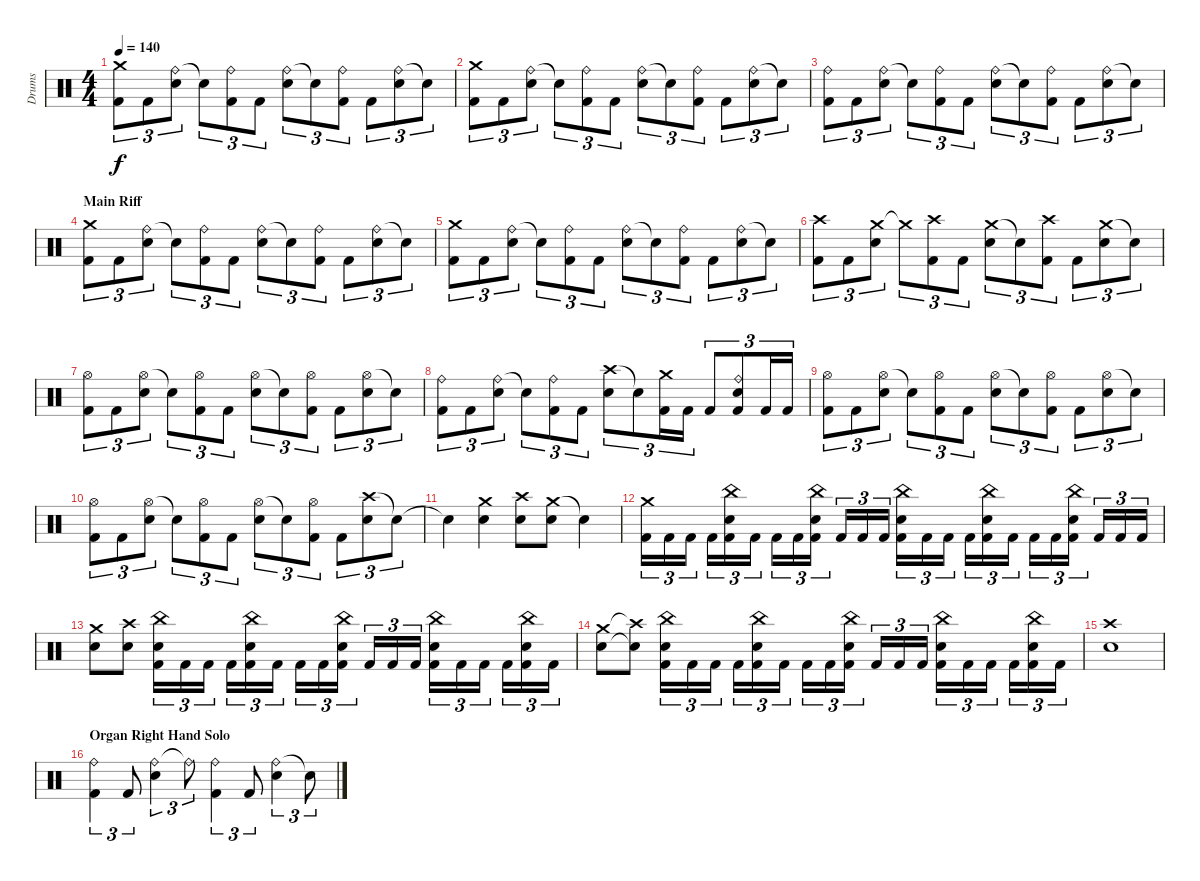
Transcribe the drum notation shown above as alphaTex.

\track ("Drums" "Drums") {instrument percussion}
\staff {score}
\articulation defaults
\ts (4 4)
\tempo 140
\clef neutral
\ks c
("Crash medium (hit)" "Kick (hit) 2").8{tu (3 2) dy f} "Kick (hit) 2".8{tu (3 2)} ("Ride (bell)" "Electric Snare (hit)").8{tu (3 2)} "Snare (hit)"{t}.8{tu (3 2)} ("Ride (bell)" "Kick (hit) 2").8{tu (3 2)} "Kick (hit) 2".8{tu (3 2)} ("Ride (bell)" "Electric Snare (hit)").8{tu (3 2)} "Snare (hit)"{t}.8{tu (3 2)} ("Ride (bell)" "Kick (hit) 2").8{tu (3 2)} "Kick (hit) 2".8{tu (3 2)} ("Ride (bell)" "Electric Snare (hit)").8{tu (3 2)} "Snare (hit)"{t}.8{tu (3 2)} |
("Crash medium (hit)" "Kick (hit) 2").8{tu (3 2)} "Kick (hit) 2".8{tu (3 2)} ("Ride (bell)" "Electric Snare (hit)").8{tu (3 2)} "Snare (hit)"{t}.8{tu (3 2)} ("Ride (bell)" "Kick (hit) 2").8{tu (3 2)} "Kick (hit) 2".8{tu (3 2)} ("Ride (bell)" "Electric Snare (hit)").8{tu (3 2)} "Snare (hit)"{t}.8{tu (3 2)} ("Ride (bell)" "Kick (hit) 2").8{tu (3 2)} "Kick (hit) 2".8{tu (3 2)} ("Ride (bell)" "Electric Snare (hit)").8{tu (3 2)} "Snare (hit)"{t}.8{tu (3 2)} |
("Ride (bell)" "Kick (hit) 2").8{tu (3 2)} "Kick (hit) 2".8{tu (3 2)} ("Ride (bell)" "Electric Snare (hit)").8{tu (3 2)} "Snare (hit)"{t}.8{tu (3 2)} ("Ride (bell)" "Kick (hit) 2").8{tu (3 2)} "Kick (hit) 2".8{tu (3 2)} ("Ride (bell)" "Electric Snare (hit)").8{tu (3 2)} "Snare (hit)"{t}.8{tu (3 2)} ("Ride (bell)" "Kick (hit) 2").8{tu (3 2)} "Kick (hit) 2".8{tu (3 2)} ("Ride (bell)" "Electric Snare (hit)").8{tu (3 2)} "Snare (hit)"{t}.8{tu (3 2)} |
\section ("" "Main Riff")
("Crash medium (hit)" "Kick (hit) 2").8{tu (3 2)} "Kick (hit) 2".8{tu (3 2)} ("Ride (bell)" "Electric Snare (hit)").8{tu (3 2)} "Snare (hit)"{t}.8{tu (3 2)} ("Ride (bell)" "Kick (hit) 2").8{tu (3 2)} "Kick (hit) 2".8{tu (3 2)} ("Ride (bell)" "Electric Snare (hit)").8{tu (3 2)} "Snare (hit)"{t}.8{tu (3 2)} ("Ride (bell)" "Kick (hit) 2").8{tu (3 2)} "Kick (hit) 2".8{tu (3 2)} ("Ride (bell)" "Electric Snare (hit)").8{tu (3 2)} "Snare (hit)"{t}.8{tu (3 2)} |
("Crash medium (hit)" "Kick (hit) 2").8{tu (3 2)} "Kick (hit) 2".8{tu (3 2)} ("Ride (bell)" "Electric Snare (hit)").8{tu (3 2)} "Snare (hit)"{t}.8{tu (3 2)} ("Ride (bell)" "Kick (hit) 2").8{tu (3 2)} "Kick (hit) 2".8{tu (3 2)} ("Ride (bell)" "Electric Snare (hit)").8{tu (3 2)} "Snare (hit)"{t}.8{tu (3 2)} ("Ride (bell)" "Kick (hit) 2").8{tu (3 2)} "Kick (hit) 2".8{tu (3 2)} ("Ride (bell)" "Electric Snare (hit)").8{tu (3 2)} "Snare (hit)"{t}.8{tu (3 2)} |
("Crash high (hit)" "Kick (hit) 2").8{tu (3 2)} "Kick (hit) 2".8{tu (3 2)} ("Crash medium (hit)" "Electric Snare (hit)").8{tu (3 2)} "Crash medium (hit)"{t}.8{tu (3 2)} ("Crash high (hit)" "Kick (hit) 2").8{tu (3 2)} "Kick (hit) 2".8{tu (3 2)} ("Crash medium (hit)" "Electric Snare (hit)").8{tu (3 2)} "Snare (hit)"{t}.8{tu (3 2)} ("Crash high (hit)" "Kick (hit) 2").8{tu (3 2)} "Kick (hit) 2".8{tu (3 2)} ("Crash medium (hit)" "Electric Snare (hit)").8{tu (3 2)} "Snare (hit)"{t}.8{tu (3 2)} |
("Hi-Hat (open)" "Kick (hit) 2").8{tu (3 2)} "Kick (hit) 2".8{tu (3 2)} ("Hi-Hat (open)" "Electric Snare (hit)").8{tu (3 2)} "Snare (hit)"{t}.8{tu (3 2)} ("Hi-Hat (open)" "Kick (hit) 2").8{tu (3 2)} "Kick (hit) 2".8{tu (3 2)} ("Hi-Hat (open)" "Electric Snare (hit)").8{tu (3 2)} "Snare (hit)"{t}.8{tu (3 2)} ("Hi-Hat (open)" "Kick (hit) 2").8{tu (3 2)} "Kick (hit) 2".8{tu (3 2)} ("Hi-Hat (open)" "Electric Snare (hit)").8{tu (3 2)} "Snare (hit)"{t}.8{tu (3 2)} |
("Ride (bell)" "Kick (hit) 2").8{tu (3 2)} "Kick (hit) 2".8{tu (3 2)} ("Ride (bell)" "Electric Snare (hit)").8{tu (3 2)} "Snare (hit)"{t}.8{tu (3 2)} ("Ride (bell)" "Kick (hit) 2").8{tu (3 2)} "Kick (hit) 2".8{tu (3 2)} ("Crash high (hit)" "Electric Snare (hit)").8{tu (3 2)} "Snare (hit)"{t}.8{tu (3 2)} ("Crash medium (hit)" "Kick (hit) 2").16{tu (3 2)} "Kick (hit) 2".16{tu (3 2)} "Kick (hit) 2".8{tu (3 2)} ("Ride (bell)" "Electric Snare (hit)" "Kick (hit) 2").8{tu (3 2)} "Kick (hit) 2".16{tu (3 2)} "Kick (hit) 2".16{tu (3 2)} |
("Hi-Hat (open)" "Kick (hit) 2").8{tu (3 2)} "Kick (hit) 2".8{tu (3 2)} ("Hi-Hat (open)" "Electric Snare (hit)").8{tu (3 2)} "Snare (hit)"{t}.8{tu (3 2)} ("Hi-Hat (open)" "Kick (hit) 2").8{tu (3 2)} "Kick (hit) 2".8{tu (3 2)} ("Hi-Hat (open)" "Electric Snare (hit)").8{tu (3 2)} "Snare (hit)"{t}.8{tu (3 2)} ("Hi-Hat (open)" "Kick (hit) 2").8{tu (3 2)} "Kick (hit) 2".8{tu (3 2)} ("Hi-Hat (open)" "Electric Snare (hit)").8{tu (3 2)} "Snare (hit)"{t}.8{tu (3 2)} |
("Hi-Hat (open)" "Kick (hit) 2").8{tu (3 2)} "Kick (hit) 2".8{tu (3 2)} ("Hi-Hat (open)" "Electric Snare (hit)").8{tu (3 2)} "Snare (hit)"{t}.8{tu (3 2)} ("Hi-Hat (open)" "Kick (hit) 2").8{tu (3 2)} "Kick (hit) 2".8{tu (3 2)} ("Hi-Hat (open)" "Electric Snare (hit)").8{tu (3 2)} "Snare (hit)"{t}.8{tu (3 2)} ("Hi-Hat (open)" "Kick (hit) 2").8{tu (3 2)} "Kick (hit) 2".8{tu (3 2)} ("Crash high (hit)" "Electric Snare (hit)").8{tu (3 2)} "Snare (hit)"{t}.8{tu (3 2)} |
"Snare (hit)"{t}.4 ("Crash medium (hit)" "Electric Snare (hit)").4 ("Crash high (hit)" "Electric Snare (hit)").8 ("Crash medium (hit)" "Electric Snare (hit)").8 "Snare (hit)"{t}.4 |
("Crash medium (hit)" "Kick (hit) 2").16{tu (3 2)} "Kick (hit) 2".16{tu (3 2)} "Kick (hit) 2".16{tu (3 2)} "Kick (hit) 2".16{tu (3 2)} ("China (hit)" "Electric Snare (hit)" "Kick (hit) 2").16{tu (3 2)} "Kick (hit) 2".16{tu (3 2)} "Kick (hit) 2".16{tu (3 2)} "Kick (hit) 2".16{tu (3 2)} ("China (hit)" "Electric Snare (hit)" "Kick (hit) 2").16{tu (3 2)} "Kick (hit) 2".16{tu (3 2)} "Kick (hit) 2".16{tu (3 2)} "Kick (hit) 2".16{tu (3 2)} ("China (hit)" "Electric Snare (hit)" "Kick (hit) 2").16{tu (3 2)} "Kick (hit) 2".16{tu (3 2)} "Kick (hit) 2".16{tu (3 2)} "Kick (hit) 2".16{tu (3 2)} ("China (hit)" "Electric Snare (hit)" "Kick (hit) 2").16{tu (3 2)} "Kick (hit) 2".16{tu (3 2)} "Kick (hit) 2".16{tu (3 2)} "Kick (hit) 2".16{tu (3 2)} ("China (hit)" "Electric Snare (hit)" "Kick (hit) 2").16{tu (3 2)} "Kick (hit) 2".16{tu (3 2)} "Kick (hit) 2".16{tu (3 2)} "Kick (hit) 2".16{tu (3 2)} |
("Crash medium (hit)" "Electric Snare (hit)").8 ("Crash high (hit)" "Electric Snare (hit)").8 ("China (hit)" "Electric Snare (hit)" "Kick (hit) 2").16{tu (3 2)} "Kick (hit) 2".16{tu (3 2)} "Kick (hit) 2".16{tu (3 2)} "Kick (hit) 2".16{tu (3 2)} ("China (hit)" "Electric Snare (hit)" "Kick (hit) 2").16{tu (3 2)} "Kick (hit) 2".16{tu (3 2)} "Kick (hit) 2".16{tu (3 2)} "Kick (hit) 2".16{tu (3 2)} ("China (hit)" "Electric Snare (hit)" "Kick (hit) 2").16{tu (3 2)} "Kick (hit) 2".16{tu (3 2)} "Kick (hit) 2".16{tu (3 2)} "Kick (hit) 2".16{tu (3 2)} ("China (hit)" "Electric Snare (hit)" "Kick (hit) 2").16{tu (3 2)} "Kick (hit) 2".16{tu (3 2)} "Kick (hit) 2".16{tu (3 2)} "Kick (hit) 2".16{tu (3 2)} ("China (hit)" "Electric Snare (hit)" "Kick (hit) 2").16{tu (3 2)} "Kick (hit) 2".16{tu (3 2)} |
("Crash medium (hit)" "Electric Snare (hit)").8 ("Crash high (hit)"{t} "Electric Snare (hit)"{t}).8 ("China (hit)" "Electric Snare (hit)" "Kick (hit) 2").16{tu (3 2)} "Kick (hit) 2".16{tu (3 2)} "Kick (hit) 2".16{tu (3 2)} "Kick (hit) 2".16{tu (3 2)} ("China (hit)" "Electric Snare (hit)" "Kick (hit) 2").16{tu (3 2)} "Kick (hit) 2".16{tu (3 2)} "Kick (hit) 2".16{tu (3 2)} "Kick (hit) 2".16{tu (3 2)} ("China (hit)" "Electric Snare (hit)" "Kick (hit) 2").16{tu (3 2)} "Kick (hit) 2".16{tu (3 2)} "Kick (hit) 2".16{tu (3 2)} "Kick (hit) 2".16{tu (3 2)} ("China (hit)" "Electric Snare (hit)" "Kick (hit) 2").16{tu (3 2)} "Kick (hit) 2".16{tu (3 2)} "Kick (hit) 2".16{tu (3 2)} "Kick (hit) 2".16{tu (3 2)} ("China (hit)" "Electric Snare (hit)" "Kick (hit) 2").16{tu (3 2)} "Kick (hit) 2".16{tu (3 2)} |
("Crash high (hit)" "Electric Snare (hit)").1 |
\section ("" "Organ Right Hand Solo")
("Ride (bell)" "Kick (hit) 2").4{tu (3 2)} "Kick (hit) 2".8{tu (3 2)} ("Ride (bell)" "Electric Snare (hit)").4{tu (3 2)} "Ride (bell)"{t}.8{tu (3 2)} ("Ride (bell)" "Kick (hit) 2").4{tu (3 2)} "Kick (hit) 2".8{tu (3 2)} ("Ride (bell)" "Electric Snare (hit)").4{tu (3 2)} "Snare (hit)"{t}.8{tu (3 2)}
